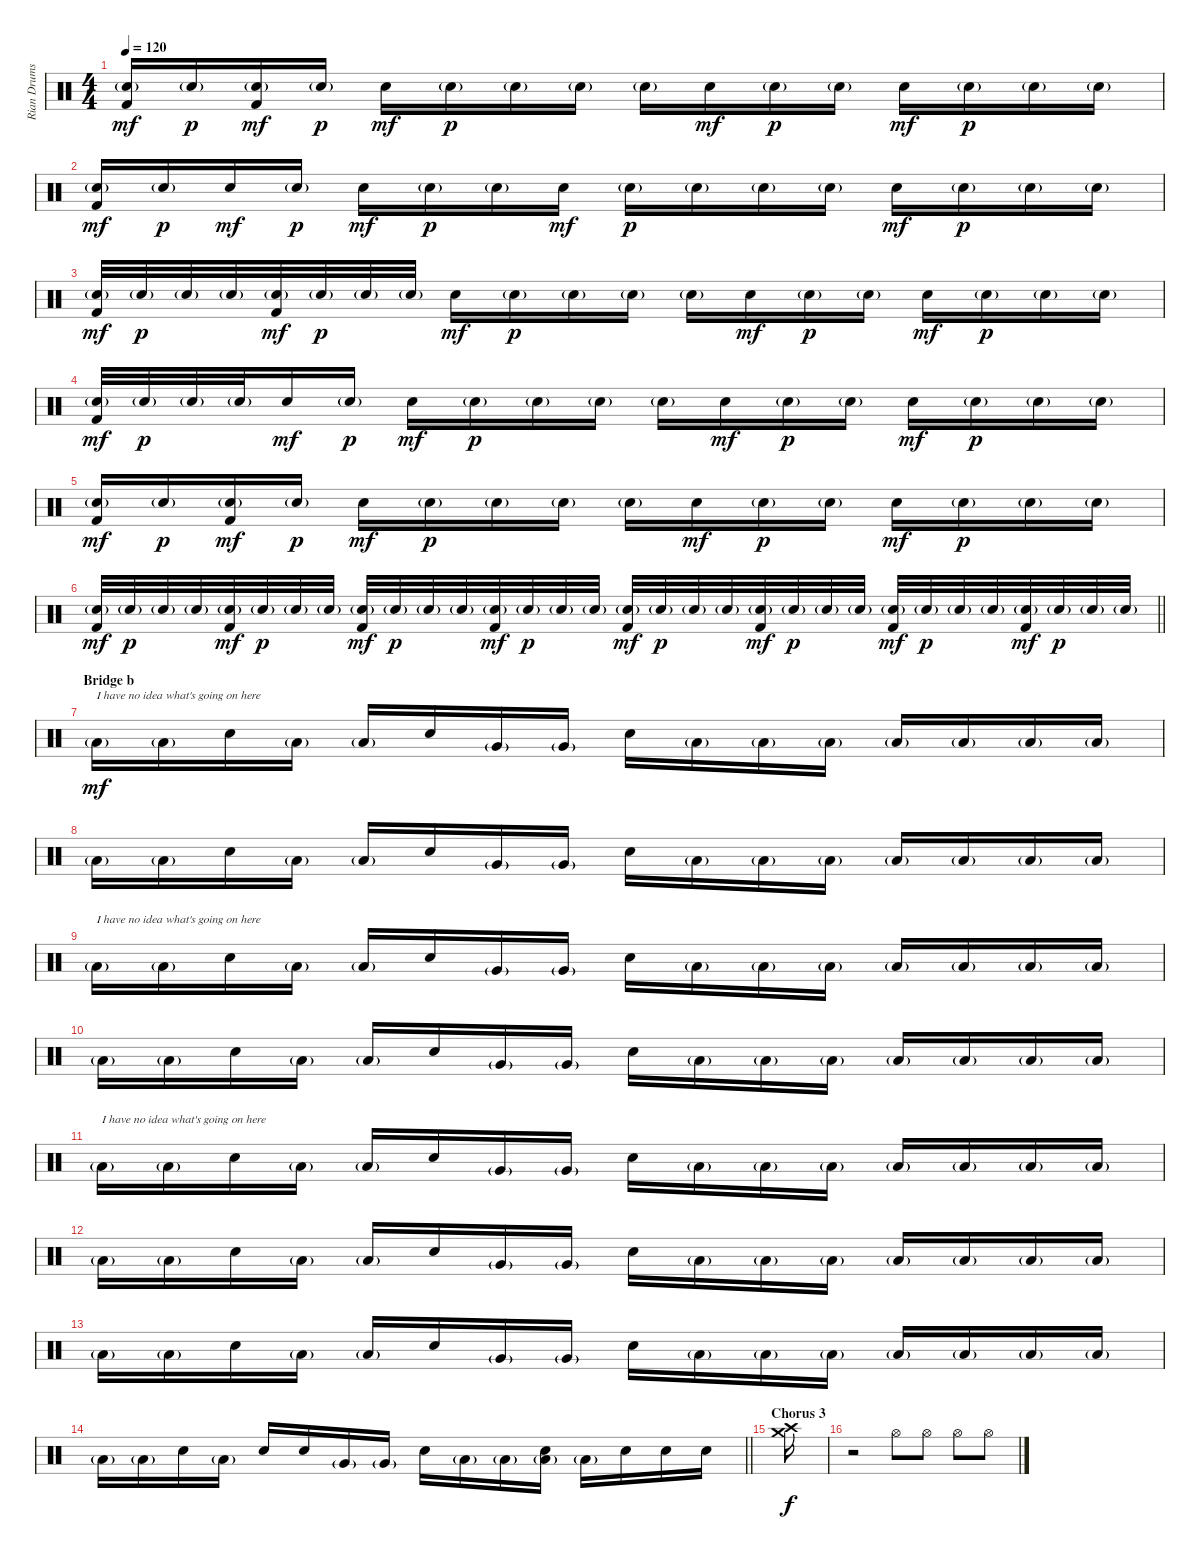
\track ("Rian Drums" "Rian Drums") {instrument percussion}
\staff {score}
\articulation defaults
\ts (4 4)
\tempo 120
\clef neutral
\ks c
("Electric Snare (hit)"{g} "Kick (hit) 2").16{dy mf} "Electric Snare (hit)"{g}.16{dy p} ("Electric Snare (hit)"{g} "Kick (hit) 2").16{dy mf} "Electric Snare (hit)"{g}.16{dy p} "Electric Snare (hit)".16{dy mf} "Electric Snare (hit)"{g}.16{dy p} "Electric Snare (hit)"{g}.16 "Electric Snare (hit)"{g}.16 "Electric Snare (hit)"{g}.16 "Electric Snare (hit)".16{dy mf} "Electric Snare (hit)"{g}.16{dy p} "Electric Snare (hit)"{g}.16 "Electric Snare (hit)".16{dy mf} "Electric Snare (hit)"{g}.16{dy p} "Electric Snare (hit)"{g}.16 "Electric Snare (hit)"{g}.16 |
("Electric Snare (hit)"{g} "Kick (hit) 2").16{dy mf} "Electric Snare (hit)"{g}.16{dy p} "Electric Snare (hit)".16{dy mf} "Electric Snare (hit)"{g}.16{dy p} "Electric Snare (hit)".16{dy mf} "Electric Snare (hit)"{g}.16{dy p} "Electric Snare (hit)"{g}.16 "Electric Snare (hit)".16{dy mf} "Electric Snare (hit)"{g}.16{dy p} "Electric Snare (hit)"{g}.16 "Electric Snare (hit)"{g}.16 "Electric Snare (hit)"{g}.16 "Electric Snare (hit)".16{dy mf} "Electric Snare (hit)"{g}.16{dy p} "Electric Snare (hit)"{g}.16 "Electric Snare (hit)"{g}.16 |
("Electric Snare (hit)"{g} "Kick (hit) 2").32{dy mf} "Electric Snare (hit)"{g}.32{dy p} "Electric Snare (hit)"{g}.32 "Electric Snare (hit)"{g}.32 ("Electric Snare (hit)"{g} "Kick (hit) 2").32{dy mf} "Electric Snare (hit)"{g}.32{dy p} "Electric Snare (hit)"{g}.32 "Electric Snare (hit)"{g}.32 "Electric Snare (hit)".16{dy mf} "Electric Snare (hit)"{g}.16{dy p} "Electric Snare (hit)"{g}.16 "Electric Snare (hit)"{g}.16 "Electric Snare (hit)"{g}.16 "Electric Snare (hit)".16{dy mf} "Electric Snare (hit)"{g}.16{dy p} "Electric Snare (hit)"{g}.16 "Electric Snare (hit)".16{dy mf} "Electric Snare (hit)"{g}.16{dy p} "Electric Snare (hit)"{g}.16 "Electric Snare (hit)"{g}.16 |
("Electric Snare (hit)"{g} "Kick (hit) 2").32{dy mf} "Electric Snare (hit)"{g}.32{dy p} "Electric Snare (hit)"{g}.32 "Electric Snare (hit)"{g}.32 "Electric Snare (hit)".16{dy mf} "Electric Snare (hit)"{g}.16{dy p} "Electric Snare (hit)".16{dy mf} "Electric Snare (hit)"{g}.16{dy p} "Electric Snare (hit)"{g}.16 "Electric Snare (hit)"{g}.16 "Electric Snare (hit)"{g}.16 "Electric Snare (hit)".16{dy mf} "Electric Snare (hit)"{g}.16{dy p} "Electric Snare (hit)"{g}.16 "Electric Snare (hit)".16{dy mf} "Electric Snare (hit)"{g}.16{dy p} "Electric Snare (hit)"{g}.16 "Electric Snare (hit)"{g}.16 |
("Electric Snare (hit)"{g} "Kick (hit) 2").16{dy mf} "Electric Snare (hit)"{g}.16{dy p} ("Electric Snare (hit)"{g} "Kick (hit) 2").16{dy mf} "Electric Snare (hit)"{g}.16{dy p} "Electric Snare (hit)".16{dy mf} "Electric Snare (hit)"{g}.16{dy p} "Electric Snare (hit)"{g}.16 "Electric Snare (hit)"{g}.16 "Electric Snare (hit)"{g}.16 "Electric Snare (hit)".16{dy mf} "Electric Snare (hit)"{g}.16{dy p} "Electric Snare (hit)"{g}.16 "Electric Snare (hit)".16{dy mf} "Electric Snare (hit)"{g}.16{dy p} "Electric Snare (hit)"{g}.16 "Electric Snare (hit)"{g}.16 |
\barLineRight lightlight
("Electric Snare (hit)"{g} "Kick (hit) 2").32{dy mf} "Electric Snare (hit)"{g}.32{dy p} "Electric Snare (hit)"{g}.32 "Electric Snare (hit)"{g}.32 ("Electric Snare (hit)"{g} "Kick (hit) 2").32{dy mf} "Electric Snare (hit)"{g}.32{dy p} "Electric Snare (hit)"{g}.32 "Electric Snare (hit)"{g}.32 ("Electric Snare (hit)"{g} "Kick (hit) 2").32{dy mf} "Electric Snare (hit)"{g}.32{dy p} "Electric Snare (hit)"{g}.32 "Electric Snare (hit)"{g}.32 ("Electric Snare (hit)"{g} "Kick (hit) 2").32{dy mf} "Electric Snare (hit)"{g}.32{dy p} "Electric Snare (hit)"{g}.32 "Electric Snare (hit)"{g}.32 ("Electric Snare (hit)"{g} "Kick (hit) 2").32{dy mf} "Electric Snare (hit)"{g}.32{dy p} "Electric Snare (hit)"{g}.32 "Electric Snare (hit)"{g}.32 ("Electric Snare (hit)"{g} "Kick (hit) 2").32{dy mf} "Electric Snare (hit)"{g}.32{dy p} "Electric Snare (hit)"{g}.32 "Electric Snare (hit)"{g}.32 ("Electric Snare (hit)"{g} "Kick (hit) 2").32{dy mf} "Electric Snare (hit)"{g}.32{dy p} "Electric Snare (hit)"{g}.32 "Electric Snare (hit)"{g}.32 ("Electric Snare (hit)"{g} "Kick (hit) 2").32{dy mf} "Electric Snare (hit)"{g}.32{dy p} "Electric Snare (hit)"{g}.32 "Electric Snare (hit)"{g}.32 |
\section ("" "Bridge b")
"Low Tom (hit)"{g}.16{txt "I have no idea what's going on here " dy mf} "Low Tom (hit)"{g}.16 "Electric Snare (hit)".16 "Low Tom (hit)"{g}.16 "Low Tom (hit)"{g}.16 "Electric Snare (hit)".16 "Very Low Tom (hit)"{g}.16 "Very Low Tom (hit)"{g}.16 "Electric Snare (hit)".16 "Low Tom (hit)"{g}.16 "Low Tom (hit)"{g}.16 "Low Tom (hit)"{g}.16 "Low Floor Tom (hit)"{g}.16 "Low Floor Tom (hit)"{g}.16 "Low Tom (hit)"{g}.16 "Low Tom (hit)"{g}.16 |
"Low Tom (hit)"{g}.16 "Low Tom (hit)"{g}.16 "Electric Snare (hit)".16 "Low Tom (hit)"{g}.16 "Low Tom (hit)"{g}.16 "Electric Snare (hit)".16 "Very Low Tom (hit)"{g}.16 "Very Low Tom (hit)"{g}.16 "Electric Snare (hit)".16 "Low Tom (hit)"{g}.16 "Low Tom (hit)"{g}.16 "Low Tom (hit)"{g}.16 "Low Floor Tom (hit)"{g}.16 "Low Floor Tom (hit)"{g}.16 "Low Tom (hit)"{g}.16 "Low Tom (hit)"{g}.16 |
"Low Tom (hit)"{g}.16{txt "I have no idea what's going on here "} "Low Tom (hit)"{g}.16 "Electric Snare (hit)".16 "Low Tom (hit)"{g}.16 "Low Tom (hit)"{g}.16 "Electric Snare (hit)".16 "Very Low Tom (hit)"{g}.16 "Very Low Tom (hit)"{g}.16 "Electric Snare (hit)".16 "Low Tom (hit)"{g}.16 "Low Tom (hit)"{g}.16 "Low Tom (hit)"{g}.16 "Low Floor Tom (hit)"{g}.16 "Low Floor Tom (hit)"{g}.16 "Low Tom (hit)"{g}.16 "Low Tom (hit)"{g}.16 |
"Low Tom (hit)"{g}.16 "Low Tom (hit)"{g}.16 "Electric Snare (hit)".16 "Low Tom (hit)"{g}.16 "Low Tom (hit)"{g}.16 "Electric Snare (hit)".16 "Very Low Tom (hit)"{g}.16 "Very Low Tom (hit)"{g}.16 "Electric Snare (hit)".16 "Low Tom (hit)"{g}.16 "Low Tom (hit)"{g}.16 "Low Tom (hit)"{g}.16 "Low Floor Tom (hit)"{g}.16 "Low Floor Tom (hit)"{g}.16 "Low Tom (hit)"{g}.16 "Low Tom (hit)"{g}.16 |
"Low Tom (hit)"{g}.16{txt "I have no idea what's going on here "} "Low Tom (hit)"{g}.16 "Electric Snare (hit)".16 "Low Tom (hit)"{g}.16 "Low Tom (hit)"{g}.16 "Electric Snare (hit)".16 "Very Low Tom (hit)"{g}.16 "Very Low Tom (hit)"{g}.16 "Electric Snare (hit)".16 "Low Tom (hit)"{g}.16 "Low Tom (hit)"{g}.16 "Low Tom (hit)"{g}.16 "Low Floor Tom (hit)"{g}.16 "Low Floor Tom (hit)"{g}.16 "Low Tom (hit)"{g}.16 "Low Tom (hit)"{g}.16 |
"Low Tom (hit)"{g}.16 "Low Tom (hit)"{g}.16 "Electric Snare (hit)".16 "Low Tom (hit)"{g}.16 "Low Tom (hit)"{g}.16 "Electric Snare (hit)".16 "Very Low Tom (hit)"{g}.16 "Very Low Tom (hit)"{g}.16 "Electric Snare (hit)".16 "Low Tom (hit)"{g}.16 "Low Tom (hit)"{g}.16 "Low Tom (hit)"{g}.16 "Low Floor Tom (hit)"{g}.16 "Low Floor Tom (hit)"{g}.16 "Low Tom (hit)"{g}.16 "Low Tom (hit)"{g}.16 |
"Low Tom (hit)"{g}.16 "Low Tom (hit)"{g}.16 "Electric Snare (hit)".16 "Low Tom (hit)"{g}.16 "Low Tom (hit)"{g}.16 "Electric Snare (hit)".16 "Very Low Tom (hit)"{g}.16 "Very Low Tom (hit)"{g}.16 "Electric Snare (hit)".16 "Low Tom (hit)"{g}.16 "Low Tom (hit)"{g}.16 "Low Tom (hit)"{g}.16 "Low Floor Tom (hit)"{g}.16 "Low Floor Tom (hit)"{g}.16 "Low Tom (hit)"{g}.16 "Low Tom (hit)"{g}.16 |
\barLineRight lightlight "Low Tom (hit)"{g}.16 "Low Tom (hit)"{g}.16 "Electric Snare (hit)".16 "Low Tom (hit)"{g}.16 "Electric Snare (hit)".16 "Electric Snare (hit)".16 "Very Low Tom (hit)"{g}.16 "Very Low Tom (hit)"{g}.16 "Electric Snare (hit)".16 "Low Tom (hit)"{g}.16 "Low Tom (hit)"{g}.16
("Low Tom (hit)"{g} "Electric Snare (hit)").16 "Low Floor Tom (hit)"{g}.16 "Electric Snare (hit)".16 "Electric Snare (hit)".16 "Electric Snare (hit)".16 |
\section ("" "Chorus 3")
("Crash high (hit)" "Crash medium (hit)").16{dy f} |
r.2 "Hi-Hat (open)".8 "Hi-Hat (open)".8 "Hi-Hat (open)".8 "Hi-Hat (open)".8
